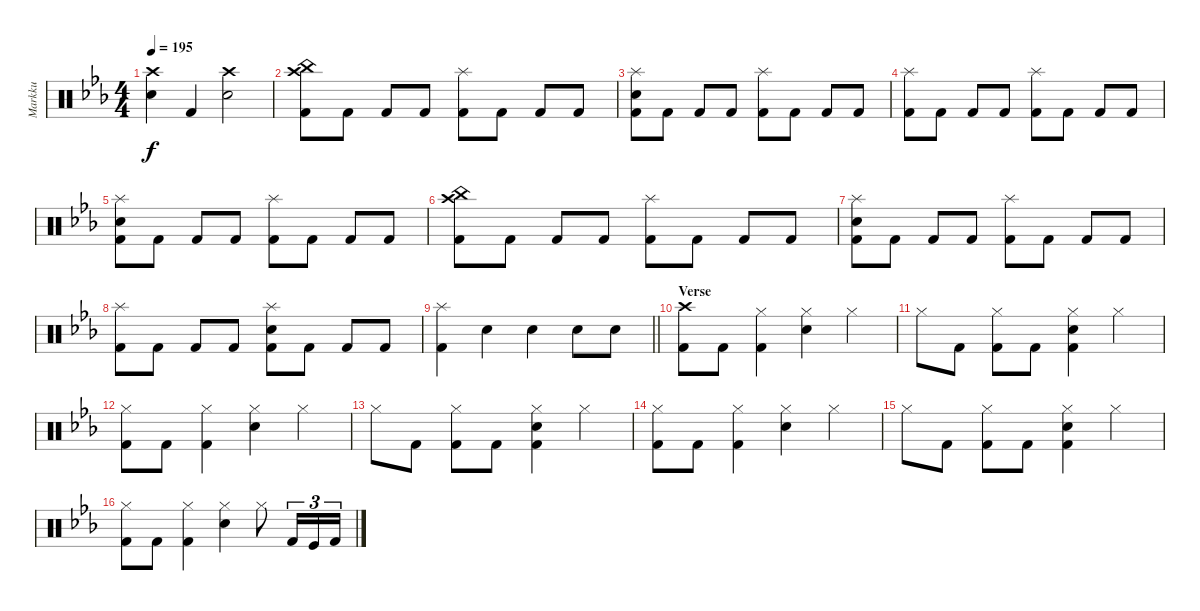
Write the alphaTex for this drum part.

\track ("Markku" "Markku") {instrument percussion}
\staff {score}
\articulation defaults
\ts (4 4)
\tempo 195
\clef neutral
\ks cminor
("Crash high (hit)" "Snare (hit) 2").4{dy f} "Kick (hit) 2".4 ("Crash high (hit)" "Snare (hit) 2").2 |
("Kick (hit) 2" "Crash high (hit)" "China (hit)").8 "Kick (hit) 2".8 "Kick (hit) 2".8 "Kick (hit) 2".8 ("Kick (hit) 2" "Splash (hit)").8 "Kick (hit) 2".8 "Kick (hit) 2".8 "Kick (hit) 2".8 |
("Kick (hit) 2" "Splash (hit)" "Snare (hit) 2").8 "Kick (hit) 2".8 "Kick (hit) 2".8 "Kick (hit) 2".8 ("Kick (hit) 2" "Splash (hit)").8 "Kick (hit) 2".8 "Kick (hit) 2".8 "Kick (hit) 2".8 |
("Kick (hit) 2" "Splash (hit)").8 "Kick (hit) 2".8 "Kick (hit) 2".8 "Kick (hit) 2".8 ("Kick (hit) 2" "Splash (hit)").8 "Kick (hit) 2".8 "Kick (hit) 2".8 "Kick (hit) 2".8 |
("Kick (hit) 2" "Splash (hit)" "Snare (hit) 2").8 "Kick (hit) 2".8 "Kick (hit) 2".8 "Kick (hit) 2".8 ("Kick (hit) 2" "Splash (hit)").8 "Kick (hit) 2".8 "Kick (hit) 2".8 "Kick (hit) 2".8 |
("Kick (hit) 2" "Crash high (hit)" "China (hit)").8 "Kick (hit) 2".8 "Kick (hit) 2".8 "Kick (hit) 2".8 ("Kick (hit) 2" "Splash (hit)").8 "Kick (hit) 2".8 "Kick (hit) 2".8 "Kick (hit) 2".8 |
("Kick (hit) 2" "Splash (hit)" "Snare (hit) 2").8 "Kick (hit) 2".8 "Kick (hit) 2".8 "Kick (hit) 2".8 ("Kick (hit) 2" "Splash (hit)").8 "Kick (hit) 2".8 "Kick (hit) 2".8 "Kick (hit) 2".8 |
("Kick (hit) 2" "Splash (hit)").8 "Kick (hit) 2".8 "Kick (hit) 2".8 "Kick (hit) 2".8 ("Kick (hit) 2" "Splash (hit)" "Snare (hit) 2").8 "Kick (hit) 2".8 "Kick (hit) 2".8 "Kick (hit) 2".8 |
\barLineRight lightlight
("Kick (hit) 2" "Splash (hit)").4 "Snare (hit) 2".4 "Snare (hit) 2".4 "Snare (hit) 2".8 "Snare (hit) 2".8 |
\section ("" "Verse")
("Kick (hit) 2" "Crash high (hit)").8 "Kick (hit) 2".8 ("Kick (hit) 2" "Hi-Hat (closed)").4 ("Snare (hit) 2" "Hi-Hat (closed)").4 "Hi-Hat (closed)".4 |
"Hi-Hat (closed)".8 "Kick (hit) 2".8 ("Kick (hit) 2" "Hi-Hat (closed)").8 "Kick (hit) 2".8 ("Kick (hit) 2" "Snare (hit) 2" "Hi-Hat (closed)").4 "Hi-Hat (closed)".4 |
("Kick (hit) 2" "Hi-Hat (closed)").8 "Kick (hit) 2".8 ("Kick (hit) 2" "Hi-Hat (closed)").4 ("Snare (hit) 2" "Hi-Hat (closed)").4 "Hi-Hat (closed)".4 |
"Hi-Hat (closed)".8 "Kick (hit) 2".8 ("Kick (hit) 2" "Hi-Hat (closed)").8 "Kick (hit) 2".8 ("Kick (hit) 2" "Snare (hit) 2" "Hi-Hat (closed)").4 "Hi-Hat (closed)".4 |
("Kick (hit) 2" "Hi-Hat (closed)").8 "Kick (hit) 2".8 ("Kick (hit) 2" "Hi-Hat (closed)").4 ("Snare (hit) 2" "Hi-Hat (closed)").4 "Hi-Hat (closed)".4 |
"Hi-Hat (closed)".8 "Kick (hit) 2".8 ("Kick (hit) 2" "Hi-Hat (closed)").8 "Kick (hit) 2".8 ("Kick (hit) 2" "Snare (hit) 2" "Hi-Hat (closed)").4 "Hi-Hat (closed)".4 |
("Kick (hit) 2" "Hi-Hat (closed)").8 "Kick (hit) 2".8 ("Kick (hit) 2" "Hi-Hat (closed)").4 ("Snare (hit) 2" "Hi-Hat (closed)").4 "Hi-Hat (closed)".8 "Kick (hit) 2".16{tu (3 2)} "Kick (hit)".16{tu (3 2)} "Kick (hit) 2".16{tu (3 2)}
